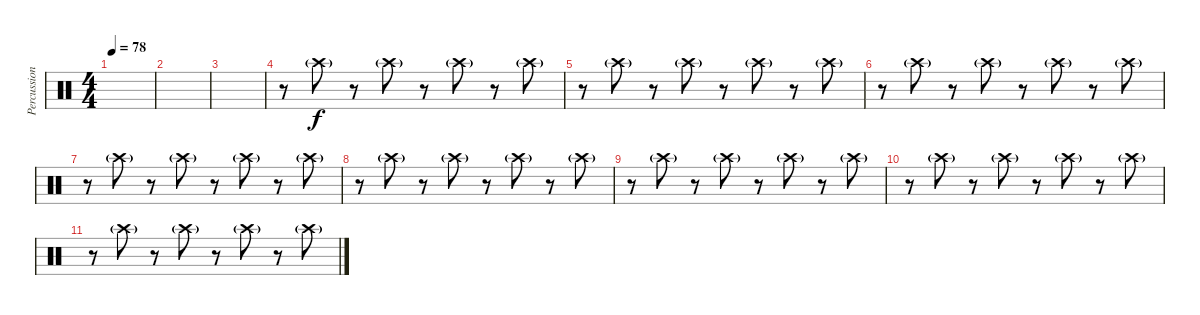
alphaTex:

\track ("Percussions" "Percussion") {instrument percussion}
\staff {score}
\articulation defaults
\ts (4 4)
\tempo 78
\clef neutral
\ks c
|
|
|
r.8 "Crash high (hit)"{g}.8 r.8 "Crash high (hit)"{g}.8 r.8 "Crash high (hit)"{g}.8 r.8 "Crash high (hit)"{g}.8 |
r.8 "Crash high (hit)"{g}.8 r.8 "Crash high (hit)"{g}.8 r.8 "Crash high (hit)"{g}.8 r.8 "Crash high (hit)"{g}.8 |
r.8 "Crash high (hit)"{g}.8 r.8 "Crash high (hit)"{g}.8 r.8 "Crash high (hit)"{g}.8 r.8 "Crash high (hit)"{g}.8 |
r.8 "Crash high (hit)"{g}.8 r.8 "Crash high (hit)"{g}.8 r.8 "Crash high (hit)"{g}.8 r.8 "Crash high (hit)"{g}.8 |
r.8 "Crash high (hit)"{g}.8 r.8 "Crash high (hit)"{g}.8 r.8 "Crash high (hit)"{g}.8 r.8 "Crash high (hit)"{g}.8 |
r.8 "Crash high (hit)"{g}.8 r.8 "Crash high (hit)"{g}.8 r.8 "Crash high (hit)"{g}.8 r.8 "Crash high (hit)"{g}.8 |
r.8 "Crash high (hit)"{g}.8 r.8 "Crash high (hit)"{g}.8 r.8 "Crash high (hit)"{g}.8 r.8 "Crash high (hit)"{g}.8 |
r.8 "Crash high (hit)"{g}.8 r.8 "Crash high (hit)"{g}.8 r.8 "Crash high (hit)"{g}.8 r.8 "Crash high (hit)"{g}.8
